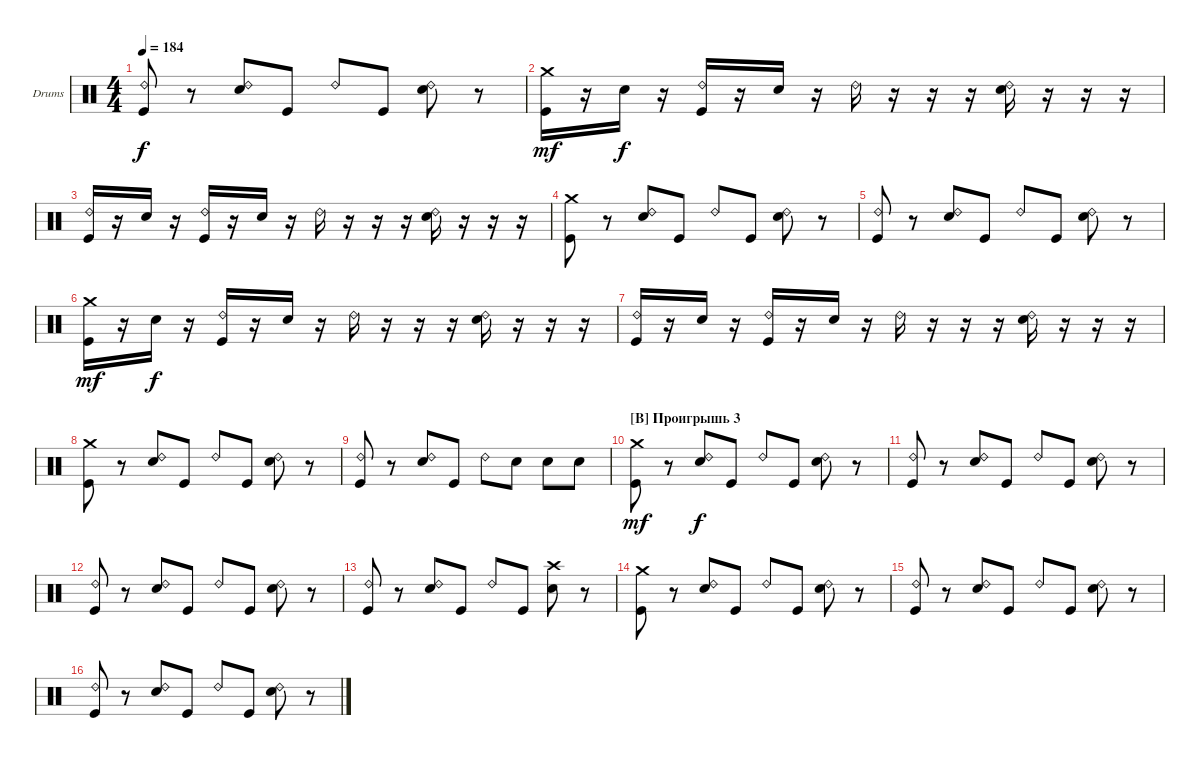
\bracketExtendMode groupsimilarinstruments
\firstSystemTrackNameOrientation horizontal
\otherSystemsTrackNameOrientation horizontal
\track ("Drumkit" "Drums") {instrument percussion}
\staff {score}
\articulation defaults
\ts (4 4)
\tempo 184
\clef neutral
\ks c
("Ride (bell) 2" "Kick (hit)").8{dy f} r.8 ("Ride (bell) 2" "Snare (hit) 2").8 "Kick (hit)".8 "Ride (bell) 2".8 "Kick (hit)".8 ("Ride (bell) 2" "Snare (hit) 2").8 r.8 |
("Crash medium (hit)" "Kick (hit)").16{dy mf} r.16 "Snare (hit) 2".16{dy f} r.16 ("Ride (bell) 2" "Kick (hit)").16 r.16 "Snare (hit) 2".16 r.16 "Ride (bell) 2".16 r.16 r.16 r.16 ("Ride (bell) 2" "Snare (hit) 2").16 r.16 r.16 r.16 |
("Ride (bell) 2" "Kick (hit)").16 r.16 "Snare (hit) 2".16 r.16 ("Ride (bell) 2" "Kick (hit)").16 r.16 "Snare (hit) 2".16 r.16 "Ride (bell) 2".16 r.16 r.16 r.16 ("Ride (bell) 2" "Snare (hit) 2").16 r.16 r.16 r.16 |
("Crash medium (hit)" "Kick (hit)").8 r.8 ("Ride (bell) 2" "Snare (hit) 2").8 "Kick (hit)".8 "Ride (bell) 2".8 "Kick (hit)".8 ("Ride (bell) 2" "Snare (hit) 2").8 r.8 |
("Ride (bell) 2" "Kick (hit)").8 r.8 ("Ride (bell) 2" "Snare (hit) 2").8 "Kick (hit)".8 "Ride (bell) 2".8 "Kick (hit)".8 ("Ride (bell) 2" "Snare (hit) 2").8 r.8 |
("Crash medium (hit)" "Kick (hit)").16{dy mf} r.16 "Snare (hit) 2".16{dy f} r.16 ("Ride (bell) 2" "Kick (hit)").16 r.16 "Snare (hit) 2".16 r.16 "Ride (bell) 2".16 r.16 r.16 r.16 ("Ride (bell) 2" "Snare (hit) 2").16 r.16 r.16 r.16 |
("Ride (bell) 2" "Kick (hit)").16 r.16 "Snare (hit) 2".16 r.16 ("Ride (bell) 2" "Kick (hit)").16 r.16 "Snare (hit) 2".16 r.16 "Ride (bell) 2".16 r.16 r.16 r.16 ("Ride (bell) 2" "Snare (hit) 2").16 r.16 r.16 r.16 |
("Crash medium (hit)" "Kick (hit)").8 r.8 ("Ride (bell) 2" "Snare (hit) 2").8 "Kick (hit)".8 "Ride (bell) 2".8 "Kick (hit)".8 ("Ride (bell) 2" "Snare (hit) 2").8 r.8 |
("Ride (bell) 2" "Kick (hit)").8 r.8 ("Ride (bell) 2" "Snare (hit) 2").8 "Kick (hit)".8 "Ride (bell) 2".8 "Snare (hit) 2".8 "Snare (hit) 2".8 "Snare (hit) 2".8 |
\section ("B" "Проигрышь 3")
("Crash medium (hit)" "Kick (hit)").8{dy mf} r.8 ("Ride (bell) 2" "Snare (hit) 2").8{dy f} "Kick (hit)".8 "Ride (bell) 2".8 "Kick (hit)".8 ("Ride (bell) 2" "Snare (hit) 2").8 r.8 |
("Ride (bell) 2" "Kick (hit)").8 r.8 ("Ride (bell) 2" "Snare (hit) 2").8 "Kick (hit)".8 "Ride (bell) 2".8 "Kick (hit)".8 ("Ride (bell) 2" "Snare (hit) 2").8 r.8 |
("Ride (bell) 2" "Kick (hit)").8 r.8 ("Ride (bell) 2" "Snare (hit) 2").8 "Kick (hit)".8 "Ride (bell) 2".8 "Kick (hit)".8 ("Ride (bell) 2" "Snare (hit) 2").8 r.8 |
("Ride (bell) 2" "Kick (hit)").8 r.8 ("Ride (bell) 2" "Snare (hit) 2").8 "Kick (hit)".8 "Ride (bell) 2".8 "Kick (hit)".8 ("Crash high (hit)" "Snare (hit) 2").8 r.8 |
("Crash medium (hit)" "Kick (hit)").8 r.8 ("Ride (bell) 2" "Snare (hit) 2").8 "Kick (hit)".8 "Ride (bell) 2".8 "Kick (hit)".8 ("Ride (bell) 2" "Snare (hit) 2").8 r.8 |
("Ride (bell) 2" "Kick (hit)").8 r.8 ("Ride (bell) 2" "Snare (hit) 2").8 "Kick (hit)".8 "Ride (bell) 2".8 "Kick (hit)".8 ("Ride (bell) 2" "Snare (hit) 2").8 r.8 |
("Ride (bell) 2" "Kick (hit)").8 r.8 ("Ride (bell) 2" "Snare (hit) 2").8 "Kick (hit)".8 "Ride (bell) 2".8 "Kick (hit)".8 ("Ride (bell) 2" "Snare (hit) 2").8 r.8
